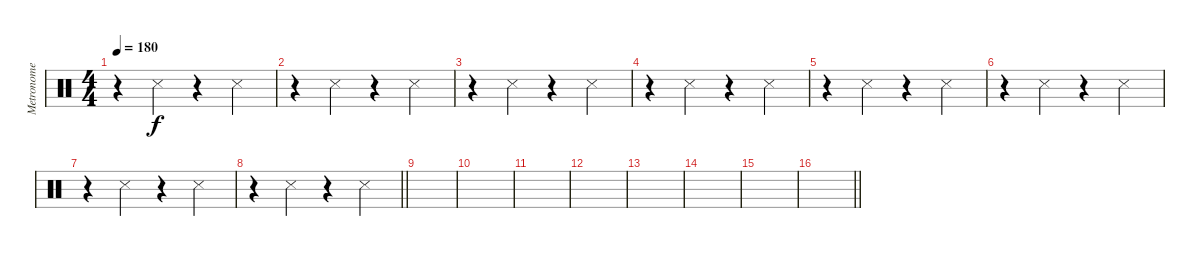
\track ("Metronome" "Metronome") {instrument percussion}
\staff {score}
\articulation defaults
\ts (4 4)
\tempo 180
\clef neutral
\ks c
r.4{dy f} "Metronome (hit)".4 r.4 "Metronome (hit)".4 |
r.4 "Metronome (hit)".4 r.4 "Metronome (hit)".4 |
r.4 "Metronome (hit)".4 r.4 "Metronome (hit)".4 |
r.4 "Metronome (hit)".4 r.4 "Metronome (hit)".4 |
r.4 "Metronome (hit)".4 r.4 "Metronome (hit)".4 |
r.4 "Metronome (hit)".4 r.4 "Metronome (hit)".4 |
r.4 "Metronome (hit)".4 r.4 "Metronome (hit)".4 |
\barLineRight lightlight
r.4 "Metronome (hit)".4 r.4 "Metronome (hit)".4 |
|
|
|
|
|
|
|
\barLineRight lightlight
